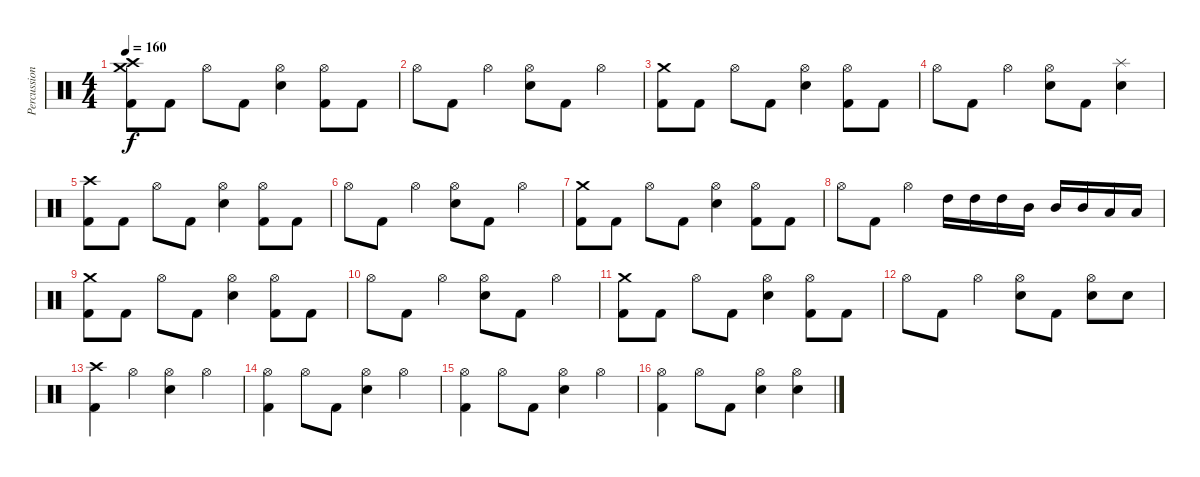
\track ("Percussioni" "Percussion") {instrument percussion}
\staff {score}
\articulation defaults
\ts (4 4)
\tempo 160
\clef neutral
\ks c
("Crash high (hit)" "Crash medium (hit)" "Kick (hit) 2").8{dy f} "Kick (hit) 2".8 "Hi-Hat (open)".8 "Kick (hit) 2".8 ("Hi-Hat (open)" "Electric Snare (hit)").4 ("Hi-Hat (open)" "Kick (hit) 2").8 "Kick (hit) 2".8 |
"Hi-Hat (open)".8 "Kick (hit) 2".8 "Hi-Hat (open)".4 ("Hi-Hat (open)" "Electric Snare (hit)").8 "Kick (hit) 2".8 "Hi-Hat (open)".4 |
("Crash medium (hit)" "Kick (hit) 2").8 "Kick (hit) 2".8 "Hi-Hat (open)".8 "Kick (hit) 2".8 ("Hi-Hat (open)" "Electric Snare (hit)").4 ("Hi-Hat (open)" "Kick (hit) 2").8 "Kick (hit) 2".8 |
"Hi-Hat (open)".8 "Kick (hit) 2".8 "Hi-Hat (open)".4 ("Hi-Hat (open)" "Electric Snare (hit)").8 "Kick (hit) 2".8 ("Splash (hit)" "Electric Snare (hit)").4 |
("Crash high (hit)" "Kick (hit) 2").8 "Kick (hit) 2".8 "Hi-Hat (open)".8 "Kick (hit) 2".8 ("Hi-Hat (open)" "Electric Snare (hit)").4 ("Hi-Hat (open)" "Kick (hit) 2").8 "Kick (hit) 2".8 |
"Hi-Hat (open)".8 "Kick (hit) 2".8 "Hi-Hat (open)".4 ("Hi-Hat (open)" "Electric Snare (hit)").8 "Kick (hit) 2".8 "Hi-Hat (open)".4 |
("Crash medium (hit)" "Kick (hit) 2").8 "Kick (hit) 2".8 "Hi-Hat (open)".8 "Kick (hit) 2".8 ("Hi-Hat (open)" "Electric Snare (hit)").4 ("Hi-Hat (open)" "Kick (hit) 2").8 "Kick (hit) 2".8 |
"Hi-Hat (open)".8 "Kick (hit) 2".8 "Hi-Hat (open)".4 "High Tom (hit)".16 "High Tom (hit)".16 "High Tom (hit)".16 "Mid Tom (hit)".16 "Mid Tom (hit)".16 "Mid Tom (hit)".16 "Low Tom (hit)".16 "Low Tom (hit)".16 |
("Crash medium (hit)" "Kick (hit) 2").8 "Kick (hit) 2".8 "Hi-Hat (open)".8 "Kick (hit) 2".8 ("Hi-Hat (open)" "Electric Snare (hit)").4 ("Hi-Hat (open)" "Kick (hit) 2").8 "Kick (hit) 2".8 |
"Hi-Hat (open)".8 "Kick (hit) 2".8 "Hi-Hat (open)".4 ("Hi-Hat (open)" "Electric Snare (hit)").8 "Kick (hit) 2".8 "Hi-Hat (open)".4 |
("Crash medium (hit)" "Kick (hit) 2").8 "Kick (hit) 2".8 "Hi-Hat (open)".8 "Kick (hit) 2".8 ("Hi-Hat (open)" "Electric Snare (hit)").4 ("Hi-Hat (open)" "Kick (hit) 2").8 "Kick (hit) 2".8 |
"Hi-Hat (open)".8 "Kick (hit) 2".8 "Hi-Hat (open)".4 ("Hi-Hat (open)" "Electric Snare (hit)").8 "Kick (hit) 2".8 ("Hi-Hat (open)" "Electric Snare (hit)").8 "Electric Snare (hit)".8 |
("Crash high (hit)" "Kick (hit) 2").4 "Hi-Hat (open)".4 ("Hi-Hat (open)" "Electric Snare (hit)").4 "Hi-Hat (open)".4 |
("Hi-Hat (open)" "Kick (hit) 2").4 "Hi-Hat (open)".8 "Kick (hit) 2".8 ("Hi-Hat (open)" "Electric Snare (hit)").4 "Hi-Hat (open)".4 |
("Hi-Hat (open)" "Kick (hit) 2").4 "Hi-Hat (open)".8 "Kick (hit) 2".8 ("Hi-Hat (open)" "Electric Snare (hit)").4 "Hi-Hat (open)".4 |
("Hi-Hat (open)" "Kick (hit) 2").4 "Hi-Hat (open)".8 "Kick (hit) 2".8 ("Hi-Hat (open)" "Electric Snare (hit)").4 ("Hi-Hat (open)" "Electric Snare (hit)").4
